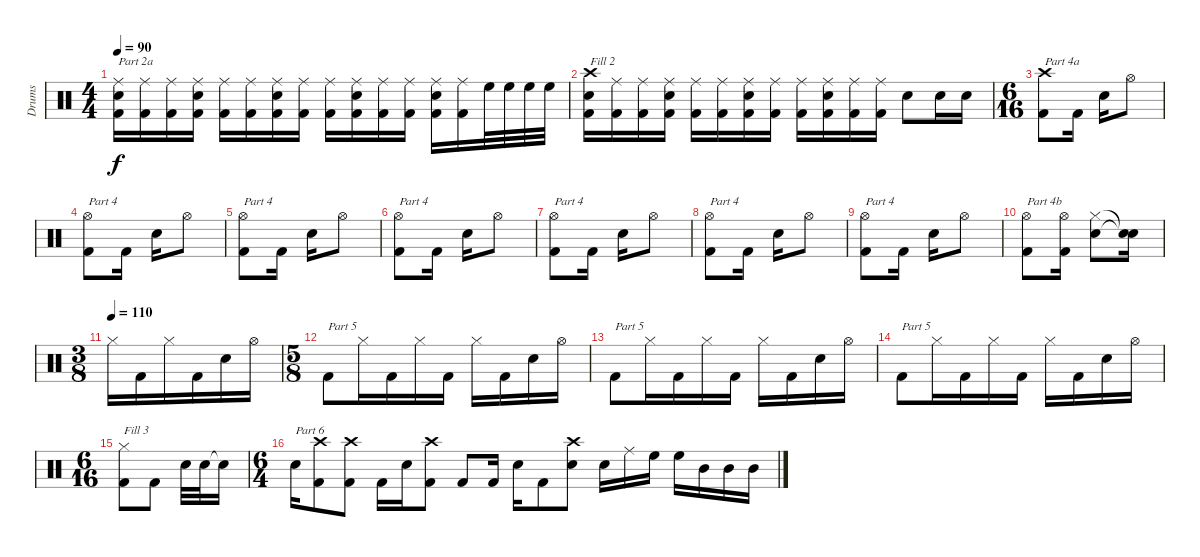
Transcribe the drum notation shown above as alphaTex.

\track ("Drums" "Drums") {instrument percussion}
\staff {score}
\articulation defaults
\ts (4 4)
\tempo 90
\clef neutral
\ks c
("Ride (middle)" "Snare (hit) 2" "Kick (hit) 2").16{txt "Part 2a" dy f} ("Ride (middle)" "Kick (hit) 2").16 ("Ride (middle)" "Kick (hit) 2").16 ("Ride (middle)" "Snare (hit) 2" "Kick (hit) 2").16 ("Ride (middle)" "Kick (hit) 2").16 ("Ride (middle)" "Kick (hit) 2").16 ("Ride (middle)" "Snare (hit) 2" "Kick (hit) 2").16 ("Ride (middle)" "Kick (hit) 2").16 ("Ride (middle)" "Kick (hit) 2").16 ("Ride (middle)" "Snare (hit) 2" "Kick (hit) 2").16 ("Ride (middle)" "Kick (hit) 2").16 ("Ride (middle)" "Kick (hit) 2").16 ("Ride (middle)" "Snare (hit) 2" "Kick (hit) 2").16 ("Ride (middle)" "Kick (hit) 2").16 "High Floor Tom (hit)".32 "High Floor Tom (hit)".32 "High Floor Tom (hit)".32 "High Floor Tom (hit)".32 |
("Crash high (hit)" "Snare (hit) 2" "Kick (hit) 2").16{txt "Fill 2"} ("Ride (middle)" "Kick (hit) 2").16 ("Ride (middle)" "Kick (hit) 2").16 ("Ride (middle)" "Snare (hit) 2" "Kick (hit) 2").16 ("Ride (middle)" "Kick (hit) 2").16 ("Ride (middle)" "Kick (hit) 2").16 ("Ride (middle)" "Snare (hit) 2" "Kick (hit) 2").16 ("Ride (middle)" "Kick (hit) 2").16 ("Ride (middle)" "Kick (hit) 2").16 ("Ride (middle)" "Snare (hit) 2" "Kick (hit) 2").16 ("Ride (middle)" "Kick (hit) 2").16 ("Ride (middle)" "Kick (hit) 2").16 "Snare (hit) 2".8 "Snare (hit) 2".16 "Snare (hit) 2".16 |
\ts (6 16)
("Crash high (hit)" "Kick (hit) 2").8{txt "Part 4a"} "Kick (hit) 2".16 "Snare (hit) 2".16 "Hi-Hat (open)".8 |
("Hi-Hat (open)" "Kick (hit) 2").8{txt "Part 4"} "Kick (hit) 2".16 "Snare (hit) 2".16 "Hi-Hat (open)".8 |
("Hi-Hat (open)" "Kick (hit) 2").8{txt "Part 4"} "Kick (hit) 2".16 "Snare (hit) 2".16 "Hi-Hat (open)".8 |
("Hi-Hat (open)" "Kick (hit) 2").8{txt "Part 4"} "Kick (hit) 2".16 "Snare (hit) 2".16 "Hi-Hat (open)".8 |
("Hi-Hat (open)" "Kick (hit) 2").8{txt "Part 4"} "Kick (hit) 2".16 "Snare (hit) 2".16 "Hi-Hat (open)".8 |
("Hi-Hat (open)" "Kick (hit) 2").8{txt "Part 4"} "Kick (hit) 2".16 "Snare (hit) 2".16 "Hi-Hat (open)".8 |
("Hi-Hat (open)" "Kick (hit) 2").8{txt "Part 4"} "Kick (hit) 2".16 "Snare (hit) 2".16 "Hi-Hat (open)".8 |
("Hi-Hat (open)" "Kick (hit) 2").8{txt "Part 4b"} ("Hi-Hat (open)" "Kick (hit) 2").16 ("Hi-Hat (closed)" "Snare (hit) 2").8 ("Snare (hit)"{t} "Snare (hit)"{t}).16 |
\ts (3 8)
\tempo (110)
"Hi-Hat (closed)".16 "Kick (hit) 2".16 "Hi-Hat (closed)".16 "Kick (hit) 2".16 "Snare (hit) 2".16 "Hi-Hat (open)".16 |
\ts (5 8)
"Kick (hit) 2".8{txt "Part 5"} "Hi-Hat (closed)".16 "Kick (hit) 2".16 "Hi-Hat (closed)".16 "Kick (hit) 2".16 "Hi-Hat (closed)".16 "Kick (hit) 2".16 "Snare (hit) 2".16 "Hi-Hat (open)".16 |
"Kick (hit) 2".8{txt "Part 5"} "Hi-Hat (closed)".16 "Kick (hit) 2".16 "Hi-Hat (closed)".16 "Kick (hit) 2".16 "Hi-Hat (closed)".16 "Kick (hit) 2".16 "Snare (hit) 2".16 "Hi-Hat (open)".16 |
"Kick (hit) 2".8{txt "Part 5"} "Hi-Hat (closed)".16 "Kick (hit) 2".16 "Hi-Hat (closed)".16 "Kick (hit) 2".16 "Hi-Hat (closed)".16 "Kick (hit) 2".16 "Snare (hit) 2".16 "Hi-Hat (open)".16 |
\ts (6 16)
("Hi-Hat (closed)" "Kick (hit) 2").8{txt "Fill 3"} "Kick (hit) 2".8 "Snare (hit) 2".32 "Snare (hit) 2".32 "Snare (hit)"{t}.16 |
\ts (6 4)
"Snare (hit) 2".16{txt "Part 6"} ("Crash high (hit)" "Kick (hit) 2").8 ("Crash high (hit)" "Kick (hit) 2").8 "Kick (hit) 2".16 "Snare (hit) 2".16 ("Crash high (hit)" "Kick (hit) 2").8 "Kick (hit) 2".8 "Kick (hit) 2".16 "Snare (hit) 2".16 "Kick (hit) 2".8 ("Crash high (hit)" "Snare (hit) 2").8 "Snare (hit) 2".16 "Ride (middle)".16 "High Floor Tom (hit)".16 "High Floor Tom (hit)".16 "Mid Tom (hit)".16 "Mid Tom (hit)".16 "Mid Tom (hit)".16
